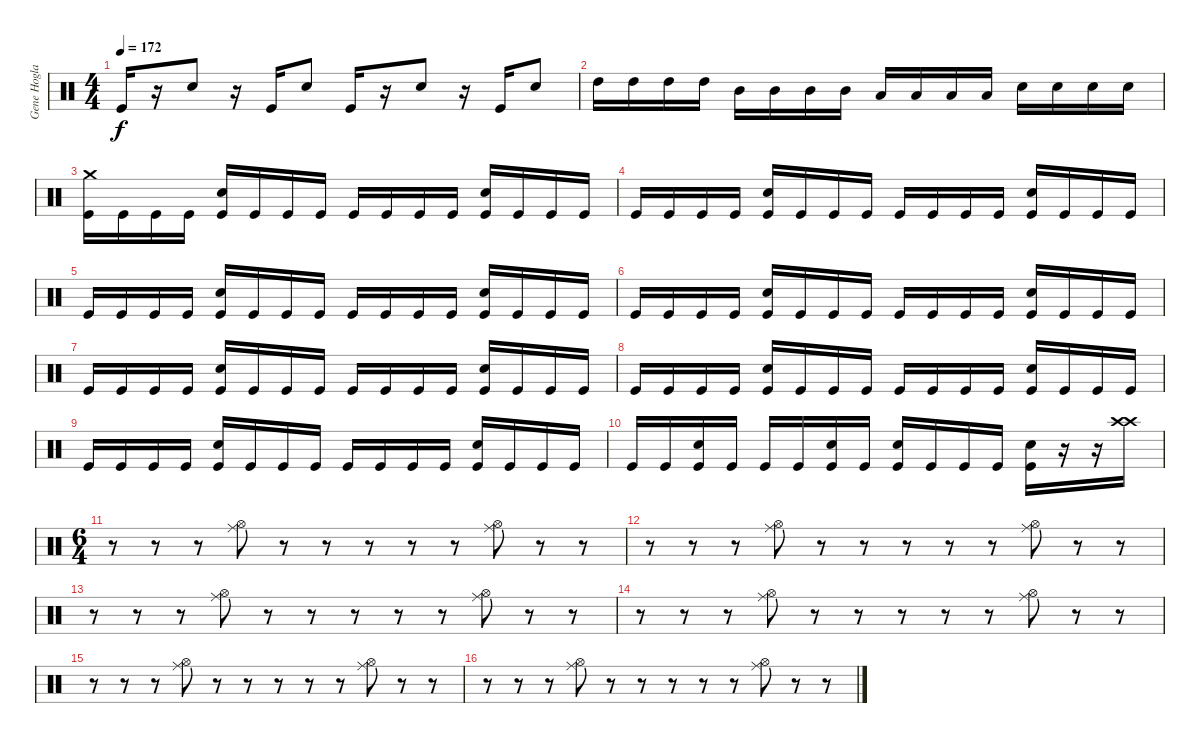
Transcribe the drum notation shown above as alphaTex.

\track ("Gene Hoglan" "Gene Hogla") {instrument percussion}
\staff {score}
\articulation defaults
\ts (4 4)
\tempo 172
\clef neutral
\ks c "Kick (hit)".16{dy f}
r.16 "Snare (hit) 2".8 r.16 "Kick (hit)".16 "Snare (hit) 2".8 "Kick (hit)".16 r.16 "Snare (hit) 2".8 r.16 "Kick (hit)".16 "Snare (hit) 2".8 |
"High Tom (hit)".16 "High Tom (hit)".16 "High Tom (hit)".16 "High Tom (hit)".16 "Mid Tom (hit)".16 "Mid Tom (hit)".16 "Mid Tom (hit)".16 "Mid Tom (hit)".16 "Low Floor Tom (hit)".16 "Low Floor Tom (hit)".16 "Low Floor Tom (hit)".16 "Low Floor Tom (hit)".16 "Snare (hit) 2".16 "Snare (hit) 2".16 "Snare (hit) 2".16 "Snare (hit) 2".16 |
("Crash medium (hit)" "Kick (hit)").16 "Kick (hit)".16 "Kick (hit)".16 "Kick (hit)".16 ("Snare (hit) 2" "Kick (hit)").16 "Kick (hit)".16 "Kick (hit)".16 "Kick (hit)".16 "Kick (hit)".16 "Kick (hit)".16 "Kick (hit)".16 "Kick (hit)".16 ("Snare (hit) 2" "Kick (hit)").16 "Kick (hit)".16 "Kick (hit)".16 "Kick (hit)".16 |
"Kick (hit)".16 "Kick (hit)".16 "Kick (hit)".16 "Kick (hit)".16 ("Snare (hit) 2" "Kick (hit)").16 "Kick (hit)".16 "Kick (hit)".16 "Kick (hit)".16 "Kick (hit)".16 "Kick (hit)".16 "Kick (hit)".16 "Kick (hit)".16 ("Snare (hit) 2" "Kick (hit)").16 "Kick (hit)".16 "Kick (hit)".16 "Kick (hit)".16 |
"Kick (hit)".16 "Kick (hit)".16 "Kick (hit)".16 "Kick (hit)".16 ("Snare (hit) 2" "Kick (hit)").16 "Kick (hit)".16 "Kick (hit)".16 "Kick (hit)".16 "Kick (hit)".16 "Kick (hit)".16 "Kick (hit)".16 "Kick (hit)".16 ("Snare (hit) 2" "Kick (hit)").16 "Kick (hit)".16 "Kick (hit)".16 "Kick (hit)".16 |
"Kick (hit)".16 "Kick (hit)".16 "Kick (hit)".16 "Kick (hit)".16 ("Snare (hit) 2" "Kick (hit)").16 "Kick (hit)".16 "Kick (hit)".16 "Kick (hit)".16 "Kick (hit)".16 "Kick (hit)".16 "Kick (hit)".16 "Kick (hit)".16 ("Snare (hit) 2" "Kick (hit)").16 "Kick (hit)".16 "Kick (hit)".16 "Kick (hit)".16 |
"Kick (hit)".16 "Kick (hit)".16 "Kick (hit)".16 "Kick (hit)".16 ("Snare (hit) 2" "Kick (hit)").16 "Kick (hit)".16 "Kick (hit)".16 "Kick (hit)".16 "Kick (hit)".16 "Kick (hit)".16 "Kick (hit)".16 "Kick (hit)".16 ("Snare (hit) 2" "Kick (hit)").16 "Kick (hit)".16 "Kick (hit)".16 "Kick (hit)".16 |
"Kick (hit)".16 "Kick (hit)".16 "Kick (hit)".16 "Kick (hit)".16 ("Snare (hit) 2" "Kick (hit)").16 "Kick (hit)".16 "Kick (hit)".16 "Kick (hit)".16 "Kick (hit)".16 "Kick (hit)".16 "Kick (hit)".16 "Kick (hit)".16 ("Snare (hit) 2" "Kick (hit)").16 "Kick (hit)".16 "Kick (hit)".16 "Kick (hit)".16 |
"Kick (hit)".16 "Kick (hit)".16 "Kick (hit)".16 "Kick (hit)".16 ("Snare (hit) 2" "Kick (hit)").16 "Kick (hit)".16 "Kick (hit)".16 "Kick (hit)".16 "Kick (hit)".16 "Kick (hit)".16 "Kick (hit)".16 "Kick (hit)".16 ("Snare (hit) 2" "Kick (hit)").16 "Kick (hit)".16 "Kick (hit)".16 "Kick (hit)".16 |
"Kick (hit)".16 "Kick (hit)".16 ("Snare (hit) 2" "Kick (hit)").16 "Kick (hit)".16 "Kick (hit)".16 "Kick (hit)".16 ("Snare (hit) 2" "Kick (hit)").16 "Kick (hit)".16 ("Snare (hit) 2" "Kick (hit)").16 "Kick (hit)".16 "Kick (hit)".16 "Kick (hit)".16 ("Snare (hit) 2" "Kick (hit)").16 r.16 r.16 ("Crash high (hit)" "Crash high (hit)").16 |
\ts (6 4)
r.8 r.8 r.8 ("Hi-Hat (open)" "Ride (middle)").8 r.8 r.8 r.8 r.8 r.8 ("Ride (middle)" "Hi-Hat (open)").8 r.8 r.8 |
r.8 r.8 r.8 ("Hi-Hat (open)" "Ride (middle)").8 r.8 r.8 r.8 r.8 r.8 ("Ride (middle)" "Hi-Hat (open)").8 r.8 r.8 |
r.8 r.8 r.8 ("Hi-Hat (open)" "Ride (middle)").8 r.8 r.8 r.8 r.8 r.8 ("Ride (middle)" "Hi-Hat (open)").8 r.8 r.8 |
r.8 r.8 r.8 ("Hi-Hat (open)" "Ride (middle)").8 r.8 r.8 r.8 r.8 r.8 ("Ride (middle)" "Hi-Hat (open)").8 r.8 r.8 |
r.8 r.8 r.8 ("Hi-Hat (open)" "Ride (middle)").8 r.8 r.8 r.8 r.8 r.8 ("Ride (middle)" "Hi-Hat (open)").8 r.8 r.8 |
r.8 r.8 r.8 ("Hi-Hat (open)" "Ride (middle)").8 r.8 r.8 r.8 r.8 r.8 ("Ride (middle)" "Hi-Hat (open)").8 r.8 r.8
